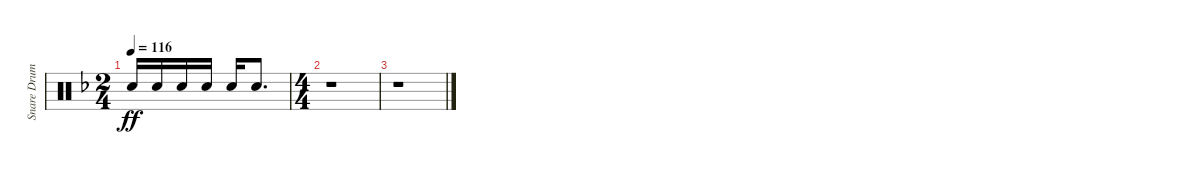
\track ("Snare Drum" "Snare Drum") {instrument percussion}
\staff {score}
\articulation defaults
\ts (2 4)
\tempo 116
\clef neutral
\ks dminor "Electric Snare (hit)".16{dy ff beam Up} "Electric Snare (hit)".16{beam Up} "Electric Snare (hit)".16{beam Up} "Electric Snare (hit)".16{beam Up} "Electric Snare (hit)".16{beam Up} "Electric Snare (hit)".8{d beam Up}
|
\ts (4 4)
\ks f
r.1 |
r.1
